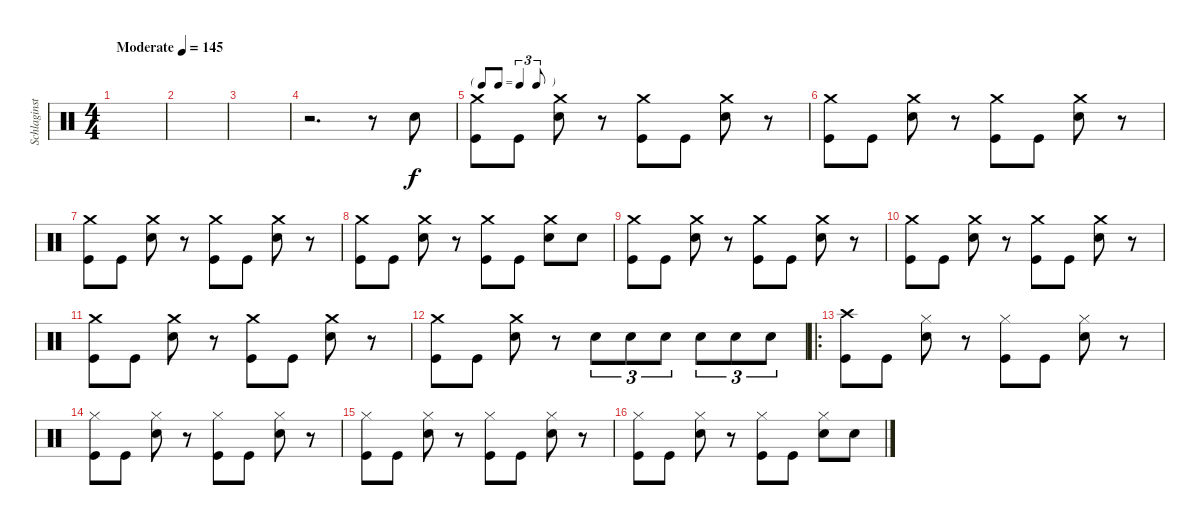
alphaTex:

\track ("Schlaginstrumente - Auswahl" "Schlaginst") {instrument percussion}
\staff {score}
\articulation defaults
\ts (4 4)
\tempo (145 "Moderate")
\clef neutral
\ks c
|
|
|
r.2{d} r.8 "Snare (hit) 2".8 |
\tf triplet8th
("Crash medium (hit)" "Kick (hit)").8 "Kick (hit)".8 ("Crash medium (hit)" "Snare (hit) 2").8 r.8 ("Crash medium (hit)" "Kick (hit)").8 "Kick (hit)".8 ("Crash medium (hit)" "Snare (hit) 2").8 r.8 |
("Crash medium (hit)" "Kick (hit)").8 "Kick (hit)".8 ("Crash medium (hit)" "Snare (hit) 2").8 r.8 ("Crash medium (hit)" "Kick (hit)").8 "Kick (hit)".8 ("Crash medium (hit)" "Snare (hit) 2").8 r.8 |
("Crash medium (hit)" "Kick (hit)").8 "Kick (hit)".8 ("Crash medium (hit)" "Snare (hit) 2").8 r.8 ("Crash medium (hit)" "Kick (hit)").8 "Kick (hit)".8 ("Crash medium (hit)" "Snare (hit) 2").8 r.8 |
("Crash medium (hit)" "Kick (hit)").8 "Kick (hit)".8 ("Crash medium (hit)" "Snare (hit) 2").8 r.8 ("Crash medium (hit)" "Kick (hit)").8 "Kick (hit)".8 ("Crash medium (hit)" "Snare (hit) 2").8 "Snare (hit) 2".8 |
("Crash medium (hit)" "Kick (hit)").8 "Kick (hit)".8 ("Crash medium (hit)" "Snare (hit) 2").8 r.8 ("Crash medium (hit)" "Kick (hit)").8 "Kick (hit)".8 ("Crash medium (hit)" "Snare (hit) 2").8 r.8 |
("Crash medium (hit)" "Kick (hit)").8 "Kick (hit)".8 ("Crash medium (hit)" "Snare (hit) 2").8 r.8 ("Crash medium (hit)" "Kick (hit)").8 "Kick (hit)".8 ("Crash medium (hit)" "Snare (hit) 2").8 r.8 |
("Crash medium (hit)" "Kick (hit)").8 "Kick (hit)".8 ("Crash medium (hit)" "Snare (hit) 2").8 r.8 ("Crash medium (hit)" "Kick (hit)").8 "Kick (hit)".8 ("Crash medium (hit)" "Snare (hit) 2").8 r.8 |
("Crash medium (hit)" "Kick (hit)").8 "Kick (hit)".8 ("Crash medium (hit)" "Snare (hit) 2").8 r.8 "Snare (hit) 2".8{tu (3 2)} "Snare (hit) 2".8{tu (3 2)} "Snare (hit) 2".8{tu (3 2)} "Snare (hit) 2".8{tu (3 2)} "Snare (hit) 2".8{tu (3 2)} "Snare (hit) 2".8{tu (3 2)} |
\ro
("Crash high (hit)" "Kick (hit)").8 "Kick (hit)".8 ("Hi-Hat (closed)" "Snare (hit) 2").8 r.8 ("Hi-Hat (closed)" "Kick (hit)").8 "Kick (hit)".8 ("Hi-Hat (closed)" "Snare (hit) 2").8 r.8 |
("Hi-Hat (closed)" "Kick (hit)").8 "Kick (hit)".8 ("Hi-Hat (closed)" "Snare (hit) 2").8 r.8 ("Hi-Hat (closed)" "Kick (hit)").8 "Kick (hit)".8 ("Hi-Hat (closed)" "Snare (hit) 2").8 r.8 |
("Hi-Hat (closed)" "Kick (hit)").8 "Kick (hit)".8 ("Hi-Hat (closed)" "Snare (hit) 2").8 r.8 ("Hi-Hat (closed)" "Kick (hit)").8 "Kick (hit)".8 ("Hi-Hat (closed)" "Snare (hit) 2").8 r.8 |
("Hi-Hat (closed)" "Kick (hit)").8 "Kick (hit)".8 ("Hi-Hat (closed)" "Snare (hit) 2").8 r.8 ("Hi-Hat (closed)" "Kick (hit)").8 "Kick (hit)".8 ("Hi-Hat (closed)" "Snare (hit) 2").8 "Snare (hit) 2".8
